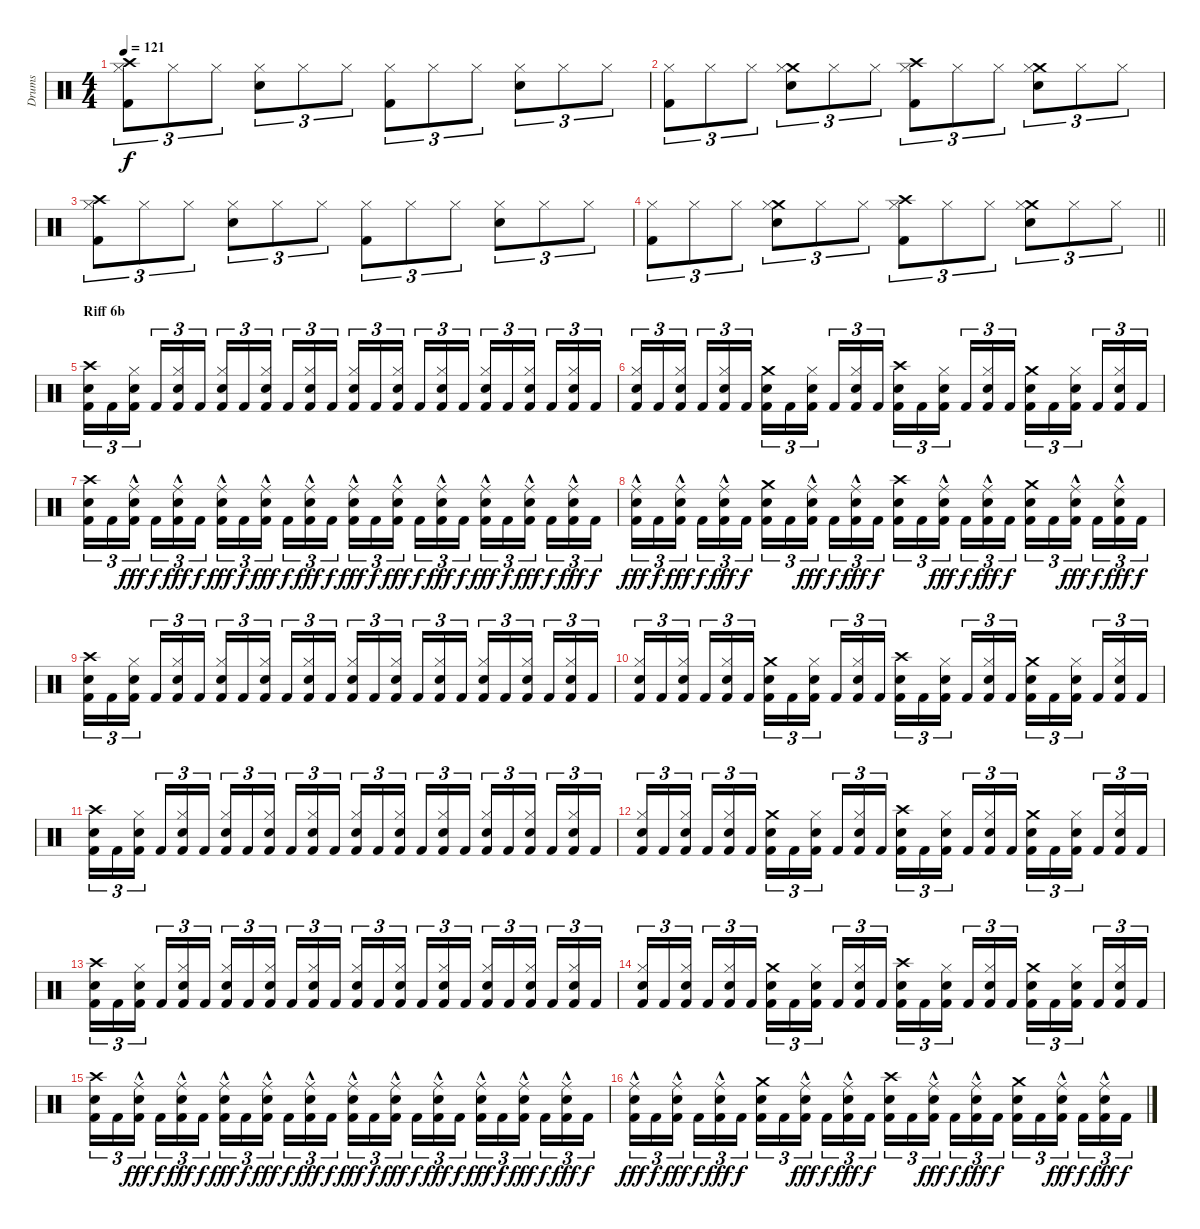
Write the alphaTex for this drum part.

\track ("Drums" "Drums") {instrument percussion}
\staff {score}
\articulation defaults
\ts (4 4)
\tempo 121
\clef neutral
\ks c
("Crash high (hit)" "Kick (hit) 2" "Hi-Hat (closed)").8{tu (3 2) dy f} "Hi-Hat (closed)".8{tu (3 2)} "Hi-Hat (closed)".8{tu (3 2)} ("Snare (hit) 2" "Hi-Hat (closed)").8{tu (3 2)} "Hi-Hat (closed)".8{tu (3 2)} "Hi-Hat (closed)".8{tu (3 2)} ("Kick (hit) 2" "Hi-Hat (closed)").8{tu (3 2)} "Hi-Hat (closed)".8{tu (3 2)} "Hi-Hat (closed)".8{tu (3 2)} ("Snare (hit) 2" "Hi-Hat (closed)").8{tu (3 2)} "Hi-Hat (closed)".8{tu (3 2)} "Hi-Hat (closed)".8{tu (3 2)} |
("Kick (hit) 2" "Hi-Hat (closed)").8{tu (3 2)} "Hi-Hat (closed)".8{tu (3 2)} "Hi-Hat (closed)".8{tu (3 2)} ("Crash medium (hit)" "Snare (hit) 2" "Hi-Hat (closed)").8{tu (3 2)} "Hi-Hat (closed)".8{tu (3 2)} "Hi-Hat (closed)".8{tu (3 2)} ("Crash high (hit)" "Kick (hit) 2" "Hi-Hat (closed)").8{tu (3 2)} "Hi-Hat (closed)".8{tu (3 2)} "Hi-Hat (closed)".8{tu (3 2)} ("Crash medium (hit)" "Snare (hit) 2" "Hi-Hat (closed)").8{tu (3 2)} "Hi-Hat (closed)".8{tu (3 2)} "Hi-Hat (closed)".8{tu (3 2)} |
("Crash high (hit)" "Kick (hit) 2" "Hi-Hat (closed)").8{tu (3 2)} "Hi-Hat (closed)".8{tu (3 2)} "Hi-Hat (closed)".8{tu (3 2)} ("Snare (hit) 2" "Hi-Hat (closed)").8{tu (3 2)} "Hi-Hat (closed)".8{tu (3 2)} "Hi-Hat (closed)".8{tu (3 2)} ("Kick (hit) 2" "Hi-Hat (closed)").8{tu (3 2)} "Hi-Hat (closed)".8{tu (3 2)} "Hi-Hat (closed)".8{tu (3 2)} ("Snare (hit) 2" "Hi-Hat (closed)").8{tu (3 2)} "Hi-Hat (closed)".8{tu (3 2)} "Hi-Hat (closed)".8{tu (3 2)} |
\barLineRight lightlight
("Kick (hit) 2" "Hi-Hat (closed)").8{tu (3 2)} "Hi-Hat (closed)".8{tu (3 2)} "Hi-Hat (closed)".8{tu (3 2)} ("Crash medium (hit)" "Snare (hit) 2" "Hi-Hat (closed)").8{tu (3 2)} "Hi-Hat (closed)".8{tu (3 2)} "Hi-Hat (closed)".8{tu (3 2)} ("Crash high (hit)" "Kick (hit) 2" "Hi-Hat (closed)").8{tu (3 2)} "Hi-Hat (closed)".8{tu (3 2)} "Hi-Hat (closed)".8{tu (3 2)} ("Crash medium (hit)" "Snare (hit) 2" "Hi-Hat (closed)").8{tu (3 2)} "Hi-Hat (closed)".8{tu (3 2)} "Hi-Hat (closed)".8{tu (3 2)} |
\section ("" "Riff 6b")
("Kick (hit) 2" "Crash high (hit)" "Snare (hit) 2").16{tu (3 2)} "Kick (hit) 2".16{tu (3 2)} ("Kick (hit) 2" "Snare (hit) 2" "Hi-Hat (closed)").16{tu (3 2) beam splitsecondary} "Kick (hit) 2".16{tu (3 2)} ("Kick (hit) 2" "Snare (hit) 2" "Hi-Hat (closed)").16{tu (3 2)} "Kick (hit) 2".16{tu (3 2)} ("Kick (hit) 2" "Snare (hit) 2" "Hi-Hat (closed)").16{tu (3 2)} "Kick (hit) 2".16{tu (3 2)} ("Kick (hit) 2" "Snare (hit) 2" "Hi-Hat (closed)").16{tu (3 2) beam splitsecondary} "Kick (hit) 2".16{tu (3 2)} ("Kick (hit) 2" "Snare (hit) 2" "Hi-Hat (closed)").16{tu (3 2)} "Kick (hit) 2".16{tu (3 2)} ("Kick (hit) 2" "Snare (hit) 2" "Hi-Hat (closed)").16{tu (3 2)} "Kick (hit) 2".16{tu (3 2)} ("Kick (hit) 2" "Snare (hit) 2" "Hi-Hat (closed)").16{tu (3 2) beam splitsecondary} "Kick (hit) 2".16{tu (3 2)} ("Kick (hit) 2" "Snare (hit) 2" "Hi-Hat (closed)").16{tu (3 2)} "Kick (hit) 2".16{tu (3 2)} ("Kick (hit) 2" "Snare (hit) 2" "Hi-Hat (closed)").16{tu (3 2)} "Kick (hit) 2".16{tu (3 2)} ("Kick (hit) 2" "Snare (hit) 2" "Hi-Hat (closed)").16{tu (3 2) beam splitsecondary} "Kick (hit) 2".16{tu (3 2)} ("Kick (hit) 2" "Snare (hit) 2" "Hi-Hat (closed)").16{tu (3 2)} "Kick (hit) 2".16{tu (3 2)} |
("Kick (hit) 2" "Snare (hit) 2" "Hi-Hat (closed)").16{tu (3 2)} "Kick (hit) 2".16{tu (3 2)} ("Kick (hit) 2" "Snare (hit) 2" "Hi-Hat (closed)").16{tu (3 2) beam splitsecondary} "Kick (hit) 2".16{tu (3 2)} ("Kick (hit) 2" "Snare (hit) 2" "Hi-Hat (closed)").16{tu (3 2)} "Kick (hit) 2".16{tu (3 2)} ("Kick (hit) 2" "Crash medium (hit)" "Snare (hit) 2").16{tu (3 2)} "Kick (hit) 2".16{tu (3 2)} ("Kick (hit) 2" "Snare (hit) 2" "Hi-Hat (closed)").16{tu (3 2) beam splitsecondary} "Kick (hit) 2".16{tu (3 2)} ("Kick (hit) 2" "Snare (hit) 2" "Hi-Hat (closed)").16{tu (3 2)} "Kick (hit) 2".16{tu (3 2)} ("Kick (hit) 2" "Crash high (hit)" "Snare (hit) 2").16{tu (3 2)} "Kick (hit) 2".16{tu (3 2)} ("Kick (hit) 2" "Snare (hit) 2" "Hi-Hat (closed)").16{tu (3 2) beam splitsecondary} "Kick (hit) 2".16{tu (3 2)} ("Kick (hit) 2" "Snare (hit) 2" "Hi-Hat (closed)").16{tu (3 2)} "Kick (hit) 2".16{tu (3 2)} ("Kick (hit) 2" "Crash medium (hit)" "Snare (hit) 2").16{tu (3 2)} "Kick (hit) 2".16{tu (3 2)} ("Kick (hit) 2" "Snare (hit) 2" "Hi-Hat (closed)").16{tu (3 2) beam splitsecondary} "Kick (hit) 2".16{tu (3 2)} ("Kick (hit) 2" "Snare (hit) 2" "Hi-Hat (closed)").16{tu (3 2)} "Kick (hit) 2".16{tu (3 2)} |
("Kick (hit) 2" "Crash high (hit)" "Snare (hit) 2").16{tu (3 2)} "Kick (hit) 2".16{tu (3 2)} ("Kick (hit) 2" "Snare (hit) 2" "Ride (middle)"{hac}).16{tu (3 2) dy fff beam splitsecondary} "Kick (hit) 2".16{tu (3 2) dy f} ("Kick (hit) 2" "Snare (hit) 2" "Ride (middle)"{hac}).16{tu (3 2) dy fff} "Kick (hit) 2".16{tu (3 2) dy f} ("Kick (hit) 2" "Snare (hit) 2" "Ride (middle)"{hac}).16{tu (3 2) dy fff} "Kick (hit) 2".16{tu (3 2) dy f} ("Kick (hit) 2" "Snare (hit) 2" "Ride (middle)"{hac}).16{tu (3 2) dy fff beam splitsecondary} "Kick (hit) 2".16{tu (3 2) dy f} ("Kick (hit) 2" "Snare (hit) 2" "Ride (middle)"{hac}).16{tu (3 2) dy fff} "Kick (hit) 2".16{tu (3 2) dy f} ("Kick (hit) 2" "Snare (hit) 2" "Ride (middle)"{hac}).16{tu (3 2) dy fff} "Kick (hit) 2".16{tu (3 2) dy f} ("Kick (hit) 2" "Snare (hit) 2" "Ride (middle)"{hac}).16{tu (3 2) dy fff beam splitsecondary} "Kick (hit) 2".16{tu (3 2) dy f} ("Kick (hit) 2" "Snare (hit) 2" "Ride (middle)"{hac}).16{tu (3 2) dy fff} "Kick (hit) 2".16{tu (3 2) dy f} ("Kick (hit) 2" "Snare (hit) 2" "Ride (middle)"{hac}).16{tu (3 2) dy fff} "Kick (hit) 2".16{tu (3 2) dy f} ("Kick (hit) 2" "Snare (hit) 2" "Ride (middle)"{hac}).16{tu (3 2) dy fff beam splitsecondary} "Kick (hit) 2".16{tu (3 2) dy f} ("Kick (hit) 2" "Snare (hit) 2" "Ride (middle)"{hac}).16{tu (3 2) dy fff} "Kick (hit) 2".16{tu (3 2) dy f} |
("Kick (hit) 2" "Snare (hit) 2" "Ride (middle)"{hac}).16{tu (3 2) dy fff} "Kick (hit) 2".16{tu (3 2) dy f} ("Kick (hit) 2" "Snare (hit) 2" "Ride (middle)"{hac}).16{tu (3 2) dy fff beam splitsecondary} "Kick (hit) 2".16{tu (3 2) dy f} ("Kick (hit) 2" "Snare (hit) 2" "Ride (middle)"{hac}).16{tu (3 2) dy fff} "Kick (hit) 2".16{tu (3 2) dy f} ("Kick (hit) 2" "Crash medium (hit)" "Snare (hit) 2").16{tu (3 2)} "Kick (hit) 2".16{tu (3 2)} ("Kick (hit) 2" "Snare (hit) 2" "Ride (middle)"{hac}).16{tu (3 2) dy fff beam splitsecondary} "Kick (hit) 2".16{tu (3 2) dy f} ("Kick (hit) 2" "Snare (hit) 2" "Ride (middle)"{hac}).16{tu (3 2) dy fff} "Kick (hit) 2".16{tu (3 2) dy f} ("Kick (hit) 2" "Crash high (hit)" "Snare (hit) 2").16{tu (3 2)} "Kick (hit) 2".16{tu (3 2)} ("Kick (hit) 2" "Snare (hit) 2" "Ride (middle)"{hac}).16{tu (3 2) dy fff beam splitsecondary} "Kick (hit) 2".16{tu (3 2) dy f} ("Kick (hit) 2" "Snare (hit) 2" "Ride (middle)"{hac}).16{tu (3 2) dy fff} "Kick (hit) 2".16{tu (3 2) dy f} ("Kick (hit) 2" "Crash medium (hit)" "Snare (hit) 2").16{tu (3 2)} "Kick (hit) 2".16{tu (3 2)} ("Kick (hit) 2" "Snare (hit) 2" "Ride (middle)"{hac}).16{tu (3 2) dy fff beam splitsecondary} "Kick (hit) 2".16{tu (3 2) dy f} ("Kick (hit) 2" "Snare (hit) 2" "Ride (middle)"{hac}).16{tu (3 2) dy fff} "Kick (hit) 2".16{tu (3 2) dy f} |
("Kick (hit) 2" "Crash high (hit)" "Snare (hit) 2").16{tu (3 2)} "Kick (hit) 2".16{tu (3 2)} ("Kick (hit) 2" "Snare (hit) 2" "Hi-Hat (closed)").16{tu (3 2) beam splitsecondary} "Kick (hit) 2".16{tu (3 2)} ("Kick (hit) 2" "Snare (hit) 2" "Hi-Hat (closed)").16{tu (3 2)} "Kick (hit) 2".16{tu (3 2)} ("Kick (hit) 2" "Snare (hit) 2" "Hi-Hat (closed)").16{tu (3 2)} "Kick (hit) 2".16{tu (3 2)} ("Kick (hit) 2" "Snare (hit) 2" "Hi-Hat (closed)").16{tu (3 2) beam splitsecondary} "Kick (hit) 2".16{tu (3 2)} ("Kick (hit) 2" "Snare (hit) 2" "Hi-Hat (closed)").16{tu (3 2)} "Kick (hit) 2".16{tu (3 2)} ("Kick (hit) 2" "Snare (hit) 2" "Hi-Hat (closed)").16{tu (3 2)} "Kick (hit) 2".16{tu (3 2)} ("Kick (hit) 2" "Snare (hit) 2" "Hi-Hat (closed)").16{tu (3 2) beam splitsecondary} "Kick (hit) 2".16{tu (3 2)} ("Kick (hit) 2" "Snare (hit) 2" "Hi-Hat (closed)").16{tu (3 2)} "Kick (hit) 2".16{tu (3 2)} ("Kick (hit) 2" "Snare (hit) 2" "Hi-Hat (closed)").16{tu (3 2)} "Kick (hit) 2".16{tu (3 2)} ("Kick (hit) 2" "Snare (hit) 2" "Hi-Hat (closed)").16{tu (3 2) beam splitsecondary} "Kick (hit) 2".16{tu (3 2)} ("Kick (hit) 2" "Snare (hit) 2" "Hi-Hat (closed)").16{tu (3 2)} "Kick (hit) 2".16{tu (3 2)} |
("Kick (hit) 2" "Snare (hit) 2" "Hi-Hat (closed)").16{tu (3 2)} "Kick (hit) 2".16{tu (3 2)} ("Kick (hit) 2" "Snare (hit) 2" "Hi-Hat (closed)").16{tu (3 2) beam splitsecondary} "Kick (hit) 2".16{tu (3 2)} ("Kick (hit) 2" "Snare (hit) 2" "Hi-Hat (closed)").16{tu (3 2)} "Kick (hit) 2".16{tu (3 2)} ("Kick (hit) 2" "Crash medium (hit)" "Snare (hit) 2").16{tu (3 2)} "Kick (hit) 2".16{tu (3 2)} ("Kick (hit) 2" "Snare (hit) 2" "Hi-Hat (closed)").16{tu (3 2) beam splitsecondary} "Kick (hit) 2".16{tu (3 2)} ("Kick (hit) 2" "Snare (hit) 2" "Hi-Hat (closed)").16{tu (3 2)} "Kick (hit) 2".16{tu (3 2)} ("Kick (hit) 2" "Crash high (hit)" "Snare (hit) 2").16{tu (3 2)} "Kick (hit) 2".16{tu (3 2)} ("Kick (hit) 2" "Snare (hit) 2" "Hi-Hat (closed)").16{tu (3 2) beam splitsecondary} "Kick (hit) 2".16{tu (3 2)} ("Kick (hit) 2" "Snare (hit) 2" "Hi-Hat (closed)").16{tu (3 2)} "Kick (hit) 2".16{tu (3 2)} ("Kick (hit) 2" "Crash medium (hit)" "Snare (hit) 2").16{tu (3 2)} "Kick (hit) 2".16{tu (3 2)} ("Kick (hit) 2" "Snare (hit) 2" "Hi-Hat (closed)").16{tu (3 2) beam splitsecondary} "Kick (hit) 2".16{tu (3 2)} ("Kick (hit) 2" "Snare (hit) 2" "Hi-Hat (closed)").16{tu (3 2)} "Kick (hit) 2".16{tu (3 2)} |
("Kick (hit) 2" "Crash high (hit)" "Snare (hit) 2").16{tu (3 2)} "Kick (hit) 2".16{tu (3 2)} ("Kick (hit) 2" "Snare (hit) 2" "Hi-Hat (closed)").16{tu (3 2) beam splitsecondary} "Kick (hit) 2".16{tu (3 2)} ("Kick (hit) 2" "Snare (hit) 2" "Hi-Hat (closed)").16{tu (3 2)} "Kick (hit) 2".16{tu (3 2)} ("Kick (hit) 2" "Snare (hit) 2" "Hi-Hat (closed)").16{tu (3 2)} "Kick (hit) 2".16{tu (3 2)} ("Kick (hit) 2" "Snare (hit) 2" "Hi-Hat (closed)").16{tu (3 2) beam splitsecondary} "Kick (hit) 2".16{tu (3 2)} ("Kick (hit) 2" "Snare (hit) 2" "Hi-Hat (closed)").16{tu (3 2)} "Kick (hit) 2".16{tu (3 2)} ("Kick (hit) 2" "Snare (hit) 2" "Hi-Hat (closed)").16{tu (3 2)} "Kick (hit) 2".16{tu (3 2)} ("Kick (hit) 2" "Snare (hit) 2" "Hi-Hat (closed)").16{tu (3 2) beam splitsecondary} "Kick (hit) 2".16{tu (3 2)} ("Kick (hit) 2" "Snare (hit) 2" "Hi-Hat (closed)").16{tu (3 2)} "Kick (hit) 2".16{tu (3 2)} ("Kick (hit) 2" "Snare (hit) 2" "Hi-Hat (closed)").16{tu (3 2)} "Kick (hit) 2".16{tu (3 2)} ("Kick (hit) 2" "Snare (hit) 2" "Hi-Hat (closed)").16{tu (3 2) beam splitsecondary} "Kick (hit) 2".16{tu (3 2)} ("Kick (hit) 2" "Snare (hit) 2" "Hi-Hat (closed)").16{tu (3 2)} "Kick (hit) 2".16{tu (3 2)} |
("Kick (hit) 2" "Snare (hit) 2" "Hi-Hat (closed)").16{tu (3 2)} "Kick (hit) 2".16{tu (3 2)} ("Kick (hit) 2" "Snare (hit) 2" "Hi-Hat (closed)").16{tu (3 2) beam splitsecondary} "Kick (hit) 2".16{tu (3 2)} ("Kick (hit) 2" "Snare (hit) 2" "Hi-Hat (closed)").16{tu (3 2)} "Kick (hit) 2".16{tu (3 2)} ("Kick (hit) 2" "Crash medium (hit)" "Snare (hit) 2").16{tu (3 2)} "Kick (hit) 2".16{tu (3 2)} ("Kick (hit) 2" "Snare (hit) 2" "Hi-Hat (closed)").16{tu (3 2) beam splitsecondary} "Kick (hit) 2".16{tu (3 2)} ("Kick (hit) 2" "Snare (hit) 2" "Hi-Hat (closed)").16{tu (3 2)} "Kick (hit) 2".16{tu (3 2)} ("Kick (hit) 2" "Crash high (hit)" "Snare (hit) 2").16{tu (3 2)} "Kick (hit) 2".16{tu (3 2)} ("Kick (hit) 2" "Snare (hit) 2" "Hi-Hat (closed)").16{tu (3 2) beam splitsecondary} "Kick (hit) 2".16{tu (3 2)} ("Kick (hit) 2" "Snare (hit) 2" "Hi-Hat (closed)").16{tu (3 2)} "Kick (hit) 2".16{tu (3 2)} ("Kick (hit) 2" "Crash medium (hit)" "Snare (hit) 2").16{tu (3 2)} "Kick (hit) 2".16{tu (3 2)} ("Kick (hit) 2" "Snare (hit) 2" "Hi-Hat (closed)").16{tu (3 2) beam splitsecondary} "Kick (hit) 2".16{tu (3 2)} ("Kick (hit) 2" "Snare (hit) 2" "Hi-Hat (closed)").16{tu (3 2)} "Kick (hit) 2".16{tu (3 2)} |
("Kick (hit) 2" "Crash high (hit)" "Snare (hit) 2").16{tu (3 2)} "Kick (hit) 2".16{tu (3 2)} ("Kick (hit) 2" "Snare (hit) 2" "Hi-Hat (closed)").16{tu (3 2) beam splitsecondary} "Kick (hit) 2".16{tu (3 2)} ("Kick (hit) 2" "Snare (hit) 2" "Hi-Hat (closed)").16{tu (3 2)} "Kick (hit) 2".16{tu (3 2)} ("Kick (hit) 2" "Snare (hit) 2" "Hi-Hat (closed)").16{tu (3 2)} "Kick (hit) 2".16{tu (3 2)} ("Kick (hit) 2" "Snare (hit) 2" "Hi-Hat (closed)").16{tu (3 2) beam splitsecondary} "Kick (hit) 2".16{tu (3 2)} ("Kick (hit) 2" "Snare (hit) 2" "Hi-Hat (closed)").16{tu (3 2)} "Kick (hit) 2".16{tu (3 2)} ("Kick (hit) 2" "Snare (hit) 2" "Hi-Hat (closed)").16{tu (3 2)} "Kick (hit) 2".16{tu (3 2)} ("Kick (hit) 2" "Snare (hit) 2" "Hi-Hat (closed)").16{tu (3 2) beam splitsecondary} "Kick (hit) 2".16{tu (3 2)} ("Kick (hit) 2" "Snare (hit) 2" "Hi-Hat (closed)").16{tu (3 2)} "Kick (hit) 2".16{tu (3 2)} ("Kick (hit) 2" "Snare (hit) 2" "Hi-Hat (closed)").16{tu (3 2)} "Kick (hit) 2".16{tu (3 2)} ("Kick (hit) 2" "Snare (hit) 2" "Hi-Hat (closed)").16{tu (3 2) beam splitsecondary} "Kick (hit) 2".16{tu (3 2)} ("Kick (hit) 2" "Snare (hit) 2" "Hi-Hat (closed)").16{tu (3 2)} "Kick (hit) 2".16{tu (3 2)} |
("Kick (hit) 2" "Snare (hit) 2" "Hi-Hat (closed)").16{tu (3 2)} "Kick (hit) 2".16{tu (3 2)} ("Kick (hit) 2" "Snare (hit) 2" "Hi-Hat (closed)").16{tu (3 2) beam splitsecondary} "Kick (hit) 2".16{tu (3 2)} ("Kick (hit) 2" "Snare (hit) 2" "Hi-Hat (closed)").16{tu (3 2)} "Kick (hit) 2".16{tu (3 2)} ("Kick (hit) 2" "Crash medium (hit)" "Snare (hit) 2").16{tu (3 2)} "Kick (hit) 2".16{tu (3 2)} ("Kick (hit) 2" "Snare (hit) 2" "Hi-Hat (closed)").16{tu (3 2) beam splitsecondary} "Kick (hit) 2".16{tu (3 2)} ("Kick (hit) 2" "Snare (hit) 2" "Hi-Hat (closed)").16{tu (3 2)} "Kick (hit) 2".16{tu (3 2)} ("Kick (hit) 2" "Crash high (hit)" "Snare (hit) 2").16{tu (3 2)} "Kick (hit) 2".16{tu (3 2)} ("Kick (hit) 2" "Snare (hit) 2" "Hi-Hat (closed)").16{tu (3 2) beam splitsecondary} "Kick (hit) 2".16{tu (3 2)} ("Kick (hit) 2" "Snare (hit) 2" "Hi-Hat (closed)").16{tu (3 2)} "Kick (hit) 2".16{tu (3 2)} ("Kick (hit) 2" "Crash medium (hit)" "Snare (hit) 2").16{tu (3 2)} "Kick (hit) 2".16{tu (3 2)} ("Kick (hit) 2" "Snare (hit) 2" "Hi-Hat (closed)").16{tu (3 2) beam splitsecondary} "Kick (hit) 2".16{tu (3 2)} ("Kick (hit) 2" "Snare (hit) 2" "Hi-Hat (closed)").16{tu (3 2)} "Kick (hit) 2".16{tu (3 2)} |
("Kick (hit) 2" "Crash high (hit)" "Snare (hit) 2").16{tu (3 2)} "Kick (hit) 2".16{tu (3 2)} ("Kick (hit) 2" "Snare (hit) 2" "Ride (middle)"{hac}).16{tu (3 2) dy fff beam splitsecondary} "Kick (hit) 2".16{tu (3 2) dy f} ("Kick (hit) 2" "Snare (hit) 2" "Ride (middle)"{hac}).16{tu (3 2) dy fff} "Kick (hit) 2".16{tu (3 2) dy f} ("Kick (hit) 2" "Snare (hit) 2" "Ride (middle)"{hac}).16{tu (3 2) dy fff} "Kick (hit) 2".16{tu (3 2) dy f} ("Kick (hit) 2" "Snare (hit) 2" "Ride (middle)"{hac}).16{tu (3 2) dy fff beam splitsecondary} "Kick (hit) 2".16{tu (3 2) dy f} ("Kick (hit) 2" "Snare (hit) 2" "Ride (middle)"{hac}).16{tu (3 2) dy fff} "Kick (hit) 2".16{tu (3 2) dy f} ("Kick (hit) 2" "Snare (hit) 2" "Ride (middle)"{hac}).16{tu (3 2) dy fff} "Kick (hit) 2".16{tu (3 2) dy f} ("Kick (hit) 2" "Snare (hit) 2" "Ride (middle)"{hac}).16{tu (3 2) dy fff beam splitsecondary} "Kick (hit) 2".16{tu (3 2) dy f} ("Kick (hit) 2" "Snare (hit) 2" "Ride (middle)"{hac}).16{tu (3 2) dy fff} "Kick (hit) 2".16{tu (3 2) dy f} ("Kick (hit) 2" "Snare (hit) 2" "Ride (middle)"{hac}).16{tu (3 2) dy fff} "Kick (hit) 2".16{tu (3 2) dy f} ("Kick (hit) 2" "Snare (hit) 2" "Ride (middle)"{hac}).16{tu (3 2) dy fff beam splitsecondary} "Kick (hit) 2".16{tu (3 2) dy f} ("Kick (hit) 2" "Snare (hit) 2" "Ride (middle)"{hac}).16{tu (3 2) dy fff} "Kick (hit) 2".16{tu (3 2) dy f} |
("Kick (hit) 2" "Snare (hit) 2" "Ride (middle)"{hac}).16{tu (3 2) dy fff} "Kick (hit) 2".16{tu (3 2) dy f} ("Kick (hit) 2" "Snare (hit) 2" "Ride (middle)"{hac}).16{tu (3 2) dy fff beam splitsecondary} "Kick (hit) 2".16{tu (3 2) dy f} ("Kick (hit) 2" "Snare (hit) 2" "Ride (middle)"{hac}).16{tu (3 2) dy fff} "Kick (hit) 2".16{tu (3 2) dy f} ("Kick (hit) 2" "Crash medium (hit)" "Snare (hit) 2").16{tu (3 2)} "Kick (hit) 2".16{tu (3 2)} ("Kick (hit) 2" "Snare (hit) 2" "Ride (middle)"{hac}).16{tu (3 2) dy fff beam splitsecondary} "Kick (hit) 2".16{tu (3 2) dy f} ("Kick (hit) 2" "Snare (hit) 2" "Ride (middle)"{hac}).16{tu (3 2) dy fff} "Kick (hit) 2".16{tu (3 2) dy f} ("Kick (hit) 2" "Crash high (hit)" "Snare (hit) 2").16{tu (3 2)} "Kick (hit) 2".16{tu (3 2)} ("Kick (hit) 2" "Snare (hit) 2" "Ride (middle)"{hac}).16{tu (3 2) dy fff beam splitsecondary} "Kick (hit) 2".16{tu (3 2) dy f} ("Kick (hit) 2" "Snare (hit) 2" "Ride (middle)"{hac}).16{tu (3 2) dy fff} "Kick (hit) 2".16{tu (3 2) dy f} ("Kick (hit) 2" "Crash medium (hit)" "Snare (hit) 2").16{tu (3 2)} "Kick (hit) 2".16{tu (3 2)} ("Kick (hit) 2" "Snare (hit) 2" "Ride (middle)"{hac}).16{tu (3 2) dy fff beam splitsecondary} "Kick (hit) 2".16{tu (3 2) dy f} ("Kick (hit) 2" "Snare (hit) 2" "Ride (middle)"{hac}).16{tu (3 2) dy fff} "Kick (hit) 2".16{tu (3 2) dy f}
